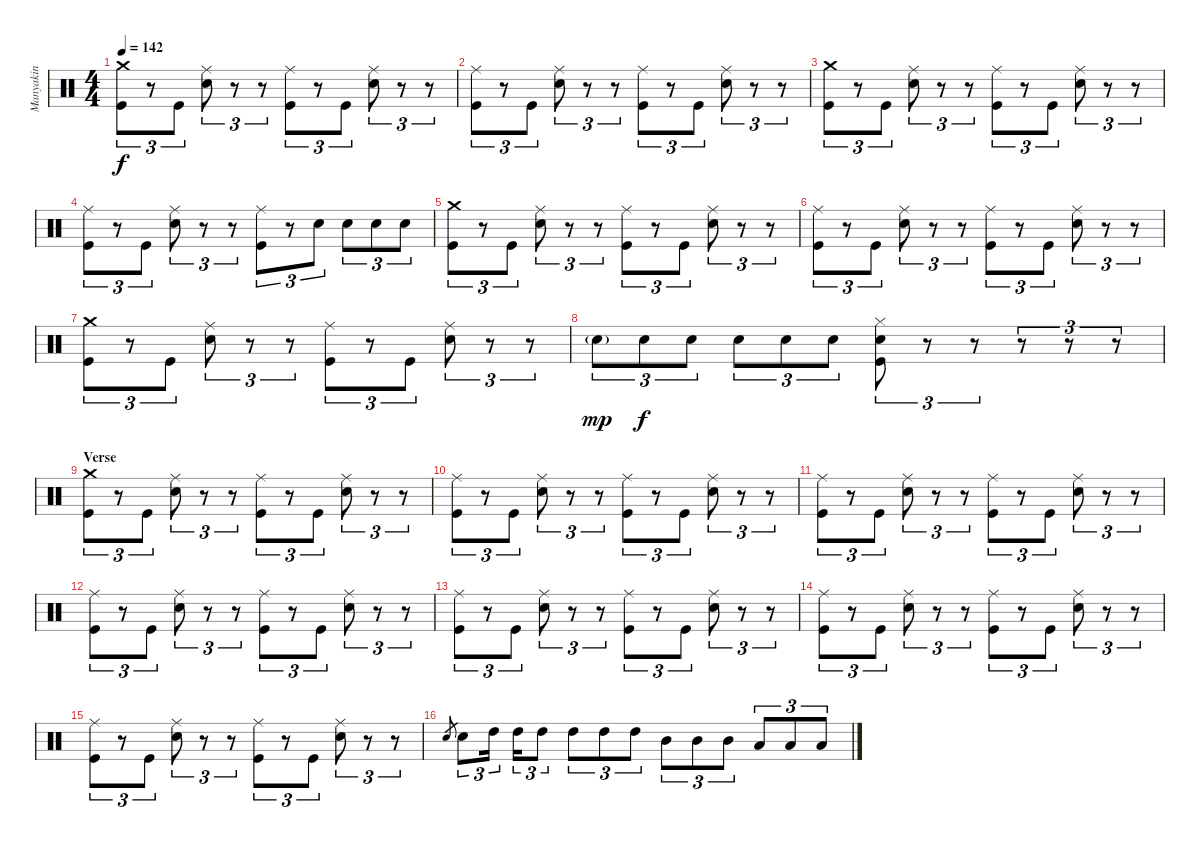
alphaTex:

\track ("Manyakin" "Manyakin") {instrument percussion}
\staff {score}
\articulation defaults
\ts (4 4)
\tempo 142
\clef neutral
\ks c
("Kick (hit)" "Crash medium (hit)").8{tu (3 2) dy f} r.8{tu (3 2)} "Kick (hit)".8{tu (3 2)} ("Electric Snare (hit)" "Ride (middle)").8{tu (3 2)} r.8{tu (3 2)} r.8{tu (3 2)} ("Kick (hit)" "Ride (middle)").8{tu (3 2)} r.8{tu (3 2)} "Kick (hit)".8{tu (3 2)} ("Electric Snare (hit)" "Ride (middle)").8{tu (3 2)} r.8{tu (3 2)} r.8{tu (3 2)} |
("Kick (hit)" "Ride (middle)").8{tu (3 2)} r.8{tu (3 2)} "Kick (hit)".8{tu (3 2)} ("Electric Snare (hit)" "Ride (middle)").8{tu (3 2)} r.8{tu (3 2)} r.8{tu (3 2)} ("Kick (hit)" "Ride (middle)").8{tu (3 2)} r.8{tu (3 2)} "Kick (hit)".8{tu (3 2)} ("Electric Snare (hit)" "Ride (middle)").8{tu (3 2)} r.8{tu (3 2)} r.8{tu (3 2)} |
("Kick (hit)" "Crash medium (hit)").8{tu (3 2)} r.8{tu (3 2)} "Kick (hit)".8{tu (3 2)} ("Electric Snare (hit)" "Ride (middle)").8{tu (3 2)} r.8{tu (3 2)} r.8{tu (3 2)} ("Kick (hit)" "Ride (middle)").8{tu (3 2)} r.8{tu (3 2)} "Kick (hit)".8{tu (3 2)} ("Electric Snare (hit)" "Ride (middle)").8{tu (3 2)} r.8{tu (3 2)} r.8{tu (3 2)} |
("Kick (hit)" "Ride (middle)").8{tu (3 2)} r.8{tu (3 2)} "Kick (hit)".8{tu (3 2)} ("Electric Snare (hit)" "Ride (middle)").8{tu (3 2)} r.8{tu (3 2)} r.8{tu (3 2)} ("Kick (hit)" "Ride (middle)").8{tu (3 2)} r.8{tu (3 2)} "Electric Snare (hit)".8{tu (3 2)} "Electric Snare (hit)".8{tu (3 2)} "Electric Snare (hit)".8{tu (3 2)} "Electric Snare (hit)".8{tu (3 2)} |
("Kick (hit)" "Crash medium (hit)").8{tu (3 2)} r.8{tu (3 2)} "Kick (hit)".8{tu (3 2)} ("Electric Snare (hit)" "Ride (middle)").8{tu (3 2)} r.8{tu (3 2)} r.8{tu (3 2)} ("Kick (hit)" "Ride (middle)").8{tu (3 2)} r.8{tu (3 2)} "Kick (hit)".8{tu (3 2)} ("Electric Snare (hit)" "Ride (middle)").8{tu (3 2)} r.8{tu (3 2)} r.8{tu (3 2)} |
("Kick (hit)" "Ride (middle)").8{tu (3 2)} r.8{tu (3 2)} "Kick (hit)".8{tu (3 2)} ("Electric Snare (hit)" "Ride (middle)").8{tu (3 2)} r.8{tu (3 2)} r.8{tu (3 2)} ("Kick (hit)" "Ride (middle)").8{tu (3 2)} r.8{tu (3 2)} "Kick (hit)".8{tu (3 2)} ("Electric Snare (hit)" "Ride (middle)").8{tu (3 2)} r.8{tu (3 2)} r.8{tu (3 2)} |
("Kick (hit)" "Crash medium (hit)").8{tu (3 2)} r.8{tu (3 2)} "Kick (hit)".8{tu (3 2)} ("Electric Snare (hit)" "Ride (middle)").8{tu (3 2)} r.8{tu (3 2)} r.8{tu (3 2)} ("Kick (hit)" "Ride (middle)").8{tu (3 2)} r.8{tu (3 2)} "Kick (hit)".8{tu (3 2)} ("Electric Snare (hit)" "Ride (middle)").8{tu (3 2)} r.8{tu (3 2)} r.8{tu (3 2)} |
"Electric Snare (hit)"{g}.8{tu (3 2) dy mp} "Electric Snare (hit)".8{tu (3 2) dy f} "Electric Snare (hit)".8{tu (3 2)} "Electric Snare (hit)".8{tu (3 2)} "Electric Snare (hit)".8{tu (3 2)} "Electric Snare (hit)".8{tu (3 2)} ("Electric Snare (hit)" "Kick (hit)" "Hi-Hat (closed)").8{tu (3 2)} r.8{tu (3 2)} r.8{tu (3 2)} r.8{tu (3 2)} r.8{tu (3 2)} r.8{tu (3 2)} |
\section ("" "Verse")
("Kick (hit)" "Crash medium (hit)").8{tu (3 2)} r.8{tu (3 2)} "Kick (hit)".8{tu (3 2)} ("Electric Snare (hit)" "Ride (middle)").8{tu (3 2)} r.8{tu (3 2)} r.8{tu (3 2)} ("Kick (hit)" "Ride (middle)").8{tu (3 2)} r.8{tu (3 2)} "Kick (hit)".8{tu (3 2)} ("Electric Snare (hit)" "Ride (middle)").8{tu (3 2)} r.8{tu (3 2)} r.8{tu (3 2)} |
("Kick (hit)" "Ride (middle)").8{tu (3 2)} r.8{tu (3 2)} "Kick (hit)".8{tu (3 2)} ("Electric Snare (hit)" "Ride (middle)").8{tu (3 2)} r.8{tu (3 2)} r.8{tu (3 2)} ("Kick (hit)" "Ride (middle)").8{tu (3 2)} r.8{tu (3 2)} "Kick (hit)".8{tu (3 2)} ("Electric Snare (hit)" "Ride (middle)").8{tu (3 2)} r.8{tu (3 2)} r.8{tu (3 2)} |
("Kick (hit)" "Ride (middle)").8{tu (3 2)} r.8{tu (3 2)} "Kick (hit)".8{tu (3 2)} ("Electric Snare (hit)" "Ride (middle)").8{tu (3 2)} r.8{tu (3 2)} r.8{tu (3 2)} ("Kick (hit)" "Ride (middle)").8{tu (3 2)} r.8{tu (3 2)} "Kick (hit)".8{tu (3 2)} ("Electric Snare (hit)" "Ride (middle)").8{tu (3 2)} r.8{tu (3 2)} r.8{tu (3 2)} |
("Kick (hit)" "Ride (middle)").8{tu (3 2)} r.8{tu (3 2)} "Kick (hit)".8{tu (3 2)} ("Electric Snare (hit)" "Ride (middle)").8{tu (3 2)} r.8{tu (3 2)} r.8{tu (3 2)} ("Kick (hit)" "Ride (middle)").8{tu (3 2)} r.8{tu (3 2)} "Kick (hit)".8{tu (3 2)} ("Electric Snare (hit)" "Ride (middle)").8{tu (3 2)} r.8{tu (3 2)} r.8{tu (3 2)} |
("Kick (hit)" "Ride (middle)").8{tu (3 2)} r.8{tu (3 2)} "Kick (hit)".8{tu (3 2)} ("Electric Snare (hit)" "Ride (middle)").8{tu (3 2)} r.8{tu (3 2)} r.8{tu (3 2)} ("Kick (hit)" "Ride (middle)").8{tu (3 2)} r.8{tu (3 2)} "Kick (hit)".8{tu (3 2)} ("Electric Snare (hit)" "Ride (middle)").8{tu (3 2)} r.8{tu (3 2)} r.8{tu (3 2)} |
("Kick (hit)" "Ride (middle)").8{tu (3 2)} r.8{tu (3 2)} "Kick (hit)".8{tu (3 2)} ("Electric Snare (hit)" "Ride (middle)").8{tu (3 2)} r.8{tu (3 2)} r.8{tu (3 2)} ("Kick (hit)" "Ride (middle)").8{tu (3 2)} r.8{tu (3 2)} "Kick (hit)".8{tu (3 2)} ("Electric Snare (hit)" "Ride (middle)").8{tu (3 2)} r.8{tu (3 2)} r.8{tu (3 2)} |
("Kick (hit)" "Ride (middle)").8{tu (3 2)} r.8{tu (3 2)} "Kick (hit)".8{tu (3 2)} ("Electric Snare (hit)" "Ride (middle)").8{tu (3 2)} r.8{tu (3 2)} r.8{tu (3 2)} ("Kick (hit)" "Ride (middle)").8{tu (3 2)} r.8{tu (3 2)} "Kick (hit)".8{tu (3 2)} ("Electric Snare (hit)" "Ride (middle)").8{tu (3 2)} r.8{tu (3 2)} r.8{tu (3 2)} |
"Electric Snare (hit)".8{gr} "Electric Snare (hit)".8{tu (3 2)} "High Tom (hit)".16{tu (3 2)} "High Tom (hit)".16{tu (3 2)} "High Tom (hit)".8{tu (3 2)} "High Tom (hit)".8{tu (3 2)} "High Tom (hit)".8{tu (3 2)} "High Tom (hit)".8{tu (3 2)} "Mid Tom (hit)".8{tu (3 2)} "Mid Tom (hit)".8{tu (3 2)} "Mid Tom (hit)".8{tu (3 2)} "Low Tom (hit)".8{tu (3 2)} "Low Tom (hit)".8{tu (3 2)} "Low Tom (hit)".8{tu (3 2)}
